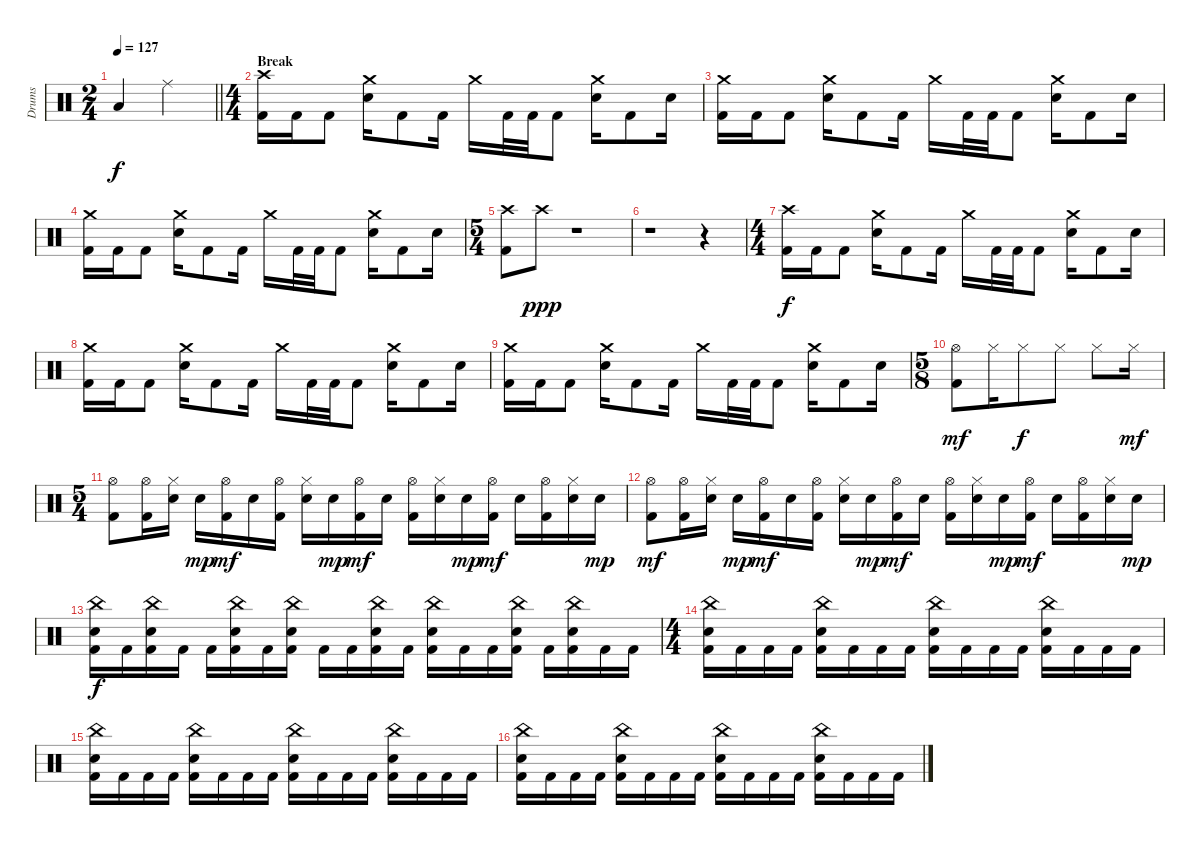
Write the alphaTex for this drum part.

\track ("Drums" "Drums") {instrument percussion}
\staff {score}
\articulation defaults
\ts (2 4)
\tempo 127
\clef neutral
\barLineRight lightlight
\ks c "Low Floor Tom (hit)".4{dy f} "Ride (middle)".4
|
\ts (4 4)
\section ("" "Break")
("Kick (hit) 2" "Crash high (hit)").16 "Kick (hit) 2".16 "Kick (hit) 2".8 ("Crash medium (hit)" "Electric Snare (hit)").16 "Kick (hit) 2".8 "Kick (hit) 2".16 "Crash medium (hit)".16 "Kick (hit) 2".32 "Kick (hit) 2".32 "Kick (hit) 2".8 ("Crash medium (hit)" "Electric Snare (hit)").16 "Kick (hit) 2".8 "Electric Snare (hit)".16 |
("Kick (hit) 2" "Crash medium (hit)").16 "Kick (hit) 2".16 "Kick (hit) 2".8 ("Crash medium (hit)" "Electric Snare (hit)").16 "Kick (hit) 2".8 "Kick (hit) 2".16 "Crash medium (hit)".16 "Kick (hit) 2".32 "Kick (hit) 2".32 "Kick (hit) 2".8 ("Crash medium (hit)" "Electric Snare (hit)").16 "Kick (hit) 2".8 "Electric Snare (hit)".16 |
("Kick (hit) 2" "Crash medium (hit)").16 "Kick (hit) 2".16 "Kick (hit) 2".8 ("Crash medium (hit)" "Electric Snare (hit)").16 "Kick (hit) 2".8 "Kick (hit) 2".16 "Crash medium (hit)".16 "Kick (hit) 2".32 "Kick (hit) 2".32 "Kick (hit) 2".8 ("Crash medium (hit)" "Electric Snare (hit)").16 "Kick (hit) 2".8 "Electric Snare (hit)".16 |
\ts (5 4)
("Kick (hit) 2" "Crash high (hit)").8 "Crash high (hit)".8{dy ppp} r.1 |
r.1 r.4 |
\ts (4 4)
("Kick (hit) 2" "Crash high (hit)").16{dy f} "Kick (hit) 2".16 "Kick (hit) 2".8 ("Crash medium (hit)" "Electric Snare (hit)").16 "Kick (hit) 2".8 "Kick (hit) 2".16 "Crash medium (hit)".16 "Kick (hit) 2".32 "Kick (hit) 2".32 "Kick (hit) 2".8 ("Crash medium (hit)" "Electric Snare (hit)").16 "Kick (hit) 2".8 "Electric Snare (hit)".16 |
("Kick (hit) 2" "Crash medium (hit)").16 "Kick (hit) 2".16 "Kick (hit) 2".8 ("Crash medium (hit)" "Electric Snare (hit)").16 "Kick (hit) 2".8 "Kick (hit) 2".16 "Crash medium (hit)".16 "Kick (hit) 2".32 "Kick (hit) 2".32 "Kick (hit) 2".8 ("Crash medium (hit)" "Electric Snare (hit)").16 "Kick (hit) 2".8 "Electric Snare (hit)".16 |
("Kick (hit) 2" "Crash medium (hit)").16 "Kick (hit) 2".16 "Kick (hit) 2".8 ("Crash medium (hit)" "Electric Snare (hit)").16 "Kick (hit) 2".8 "Kick (hit) 2".16 "Crash medium (hit)".16 "Kick (hit) 2".32 "Kick (hit) 2".32 "Kick (hit) 2".8 ("Crash medium (hit)" "Electric Snare (hit)").16 "Kick (hit) 2".8 "Electric Snare (hit)".16 |
\ts (5 8)
("Kick (hit) 2" "Hi-Hat (open)").8{dy mf} "Hi-Hat (closed)".16 "Hi-Hat (closed)".8{dy f} "Hi-Hat (closed)".8 "Hi-Hat (closed)".8 "Hi-Hat (closed)".16{dy mf} |
\ts (5 4)
("Kick (hit) 2" "Hi-Hat (open)").8 ("Kick (hit) 2" "Hi-Hat (open)").16 ("Hi-Hat (closed)" "Electric Snare (hit)").16 "Electric Snare (hit)".16{dy mp} ("Kick (hit) 2" "Hi-Hat (open)").16{dy mf} "Electric Snare (hit)".16 ("Kick (hit) 2" "Hi-Hat (open)").16 ("Hi-Hat (closed)" "Electric Snare (hit)").16 "Electric Snare (hit)".16{dy mp} ("Kick (hit) 2" "Hi-Hat (open)").16{dy mf} "Electric Snare (hit)".16 ("Kick (hit) 2" "Hi-Hat (open)").16 ("Hi-Hat (closed)" "Electric Snare (hit)").16 "Electric Snare (hit)".16{dy mp} ("Kick (hit) 2" "Hi-Hat (open)").16{dy mf} "Electric Snare (hit)".16 ("Kick (hit) 2" "Hi-Hat (open)").16 ("Hi-Hat (closed)" "Electric Snare (hit)").16 "Electric Snare (hit)".16{dy mp} |
("Kick (hit) 2" "Hi-Hat (open)").8{dy mf} ("Kick (hit) 2" "Hi-Hat (open)").16 ("Hi-Hat (closed)" "Electric Snare (hit)").16 "Electric Snare (hit)".16{dy mp} ("Kick (hit) 2" "Hi-Hat (open)").16{dy mf} "Electric Snare (hit)".16 ("Kick (hit) 2" "Hi-Hat (open)").16 ("Hi-Hat (closed)" "Electric Snare (hit)").16 "Electric Snare (hit)".16{dy mp} ("Kick (hit) 2" "Hi-Hat (open)").16{dy mf} "Electric Snare (hit)".16 ("Kick (hit) 2" "Hi-Hat (open)").16 ("Hi-Hat (closed)" "Electric Snare (hit)").16 "Electric Snare (hit)".16{dy mp} ("Kick (hit) 2" "Hi-Hat (open)").16{dy mf} "Electric Snare (hit)".16 ("Kick (hit) 2" "Hi-Hat (open)").16 ("Hi-Hat (closed)" "Electric Snare (hit)").16 "Electric Snare (hit)".16{dy mp} |
("Kick (hit) 2" "China (hit)" "Electric Snare (hit)").16{dy f} "Kick (hit) 2".16 ("Kick (hit) 2" "China (hit)" "Electric Snare (hit)").16 "Kick (hit) 2".16 "Kick (hit) 2".16 ("Kick (hit) 2" "China (hit)" "Electric Snare (hit)").16 "Kick (hit) 2".16 ("Kick (hit) 2" "China (hit)" "Electric Snare (hit)").16 "Kick (hit) 2".16 "Kick (hit) 2".16 ("Kick (hit) 2" "China (hit)" "Electric Snare (hit)").16 "Kick (hit) 2".16 ("Kick (hit) 2" "China (hit)" "Electric Snare (hit)").16 "Kick (hit) 2".16 "Kick (hit) 2".16 ("Kick (hit) 2" "China (hit)" "Electric Snare (hit)").16 "Kick (hit) 2".16 ("Kick (hit) 2" "China (hit)" "Electric Snare (hit)").16 "Kick (hit) 2".16 "Kick (hit) 2".16 |
\ts (4 4)
("Kick (hit) 2" "China (hit)" "Electric Snare (hit)").16 "Kick (hit) 2".16 "Kick (hit) 2".16 "Kick (hit) 2".16 ("Kick (hit) 2" "China (hit)" "Electric Snare (hit)").16 "Kick (hit) 2".16 "Kick (hit) 2".16 "Kick (hit) 2".16 ("Kick (hit) 2" "China (hit)" "Electric Snare (hit)").16 "Kick (hit) 2".16 "Kick (hit) 2".16 "Kick (hit) 2".16 ("Kick (hit) 2" "China (hit)" "Electric Snare (hit)").16 "Kick (hit) 2".16 "Kick (hit) 2".16 "Kick (hit) 2".16 |
("Kick (hit) 2" "China (hit)" "Electric Snare (hit)").16 "Kick (hit) 2".16 "Kick (hit) 2".16 "Kick (hit) 2".16 ("Kick (hit) 2" "China (hit)" "Electric Snare (hit)").16 "Kick (hit) 2".16 "Kick (hit) 2".16 "Kick (hit) 2".16 ("Kick (hit) 2" "China (hit)" "Electric Snare (hit)").16 "Kick (hit) 2".16 "Kick (hit) 2".16 "Kick (hit) 2".16 ("Kick (hit) 2" "China (hit)" "Electric Snare (hit)").16 "Kick (hit) 2".16 "Kick (hit) 2".16 "Kick (hit) 2".16 |
("Kick (hit) 2" "China (hit)" "Electric Snare (hit)").16 "Kick (hit) 2".16 "Kick (hit) 2".16 "Kick (hit) 2".16 ("Kick (hit) 2" "China (hit)" "Electric Snare (hit)").16 "Kick (hit) 2".16 "Kick (hit) 2".16 "Kick (hit) 2".16 ("Kick (hit) 2" "China (hit)" "Electric Snare (hit)").16 "Kick (hit) 2".16 "Kick (hit) 2".16 "Kick (hit) 2".16 ("Kick (hit) 2" "China (hit)" "Electric Snare (hit)").16 "Kick (hit) 2".16 "Kick (hit) 2".16 "Kick (hit) 2".16
